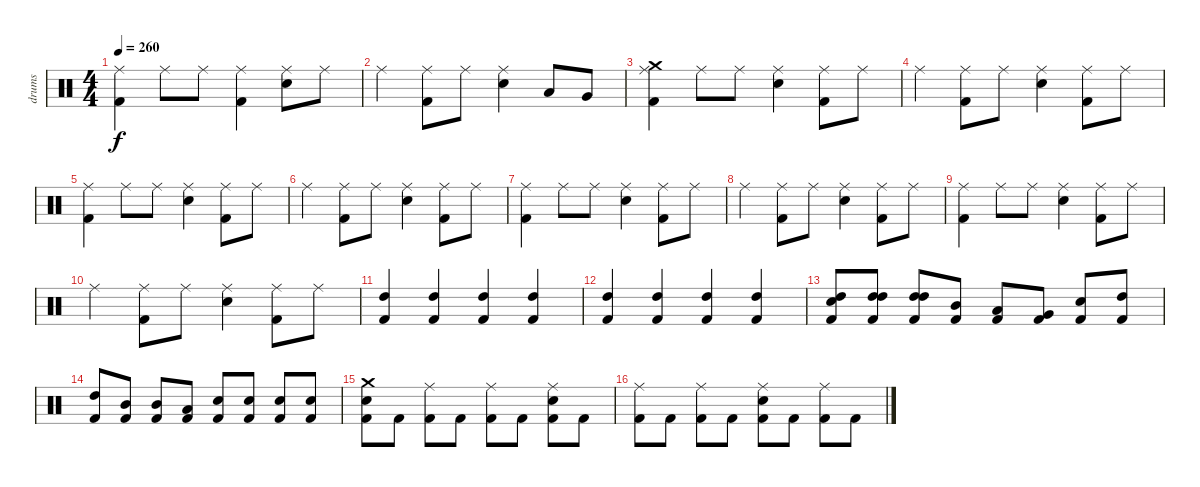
\track ("drums" "drums") {instrument percussion}
\staff {score}
\articulation defaults
\ts (4 4)
\tempo 260
\clef neutral
\ks c
("Ride (middle)" "Kick (hit) 2").4{dy f} "Ride (middle)".8 "Ride (middle)".8 ("Ride (middle)" "Kick (hit) 2").4 ("Ride (middle)" "Electric Snare (hit)").8 "Ride (middle)".8 |
"Ride (middle)".4 ("Ride (middle)" "Kick (hit) 2").8 "Ride (middle)".8 ("Ride (middle)" "Electric Snare (hit)").4 "Low Tom (hit)".8 "Very Low Tom (hit)".8 |
("Ride (middle)" "Crash medium (hit)" "Kick (hit) 2").4 "Ride (middle)".8 "Ride (middle)".8 ("Ride (middle)" "Electric Snare (hit)").4 ("Ride (middle)" "Kick (hit) 2").8 "Ride (middle)".8 |
"Ride (middle)".4 ("Ride (middle)" "Kick (hit) 2").8 "Ride (middle)".8 ("Ride (middle)" "Electric Snare (hit)").4 ("Ride (middle)" "Kick (hit) 2").8 "Ride (middle)".8 |
("Ride (middle)" "Kick (hit) 2").4 "Ride (middle)".8 "Ride (middle)".8 ("Ride (middle)" "Electric Snare (hit)").4 ("Ride (middle)" "Kick (hit) 2").8 "Ride (middle)".8 |
"Ride (middle)".4 ("Ride (middle)" "Kick (hit) 2").8 "Ride (middle)".8 ("Ride (middle)" "Electric Snare (hit)").4 ("Ride (middle)" "Kick (hit) 2").8 "Ride (middle)".8 |
("Ride (middle)" "Kick (hit) 2").4 "Ride (middle)".8 "Ride (middle)".8 ("Ride (middle)" "Electric Snare (hit)").4 ("Ride (middle)" "Kick (hit) 2").8 "Ride (middle)".8 |
"Ride (middle)".4 ("Ride (middle)" "Kick (hit) 2").8 "Ride (middle)".8 ("Ride (middle)" "Electric Snare (hit)").4 ("Ride (middle)" "Kick (hit) 2").8 "Ride (middle)".8 |
("Ride (middle)" "Kick (hit) 2").4 "Ride (middle)".8 "Ride (middle)".8 ("Ride (middle)" "Electric Snare (hit)").4 ("Ride (middle)" "Kick (hit) 2").8 "Ride (middle)".8 |
"Ride (middle)".4 ("Ride (middle)" "Kick (hit) 2").8 "Ride (middle)".8 ("Ride (middle)" "Electric Snare (hit)").4 ("Ride (middle)" "Kick (hit) 2").8 "Ride (middle)".8 |
("High Tom (hit)" "Kick (hit) 2").4 ("High Tom (hit)" "Kick (hit) 2").4 ("High Tom (hit)" "Kick (hit) 2").4 ("High Tom (hit)" "Kick (hit) 2").4 |
("High Tom (hit)" "Kick (hit) 2").4 ("High Tom (hit)" "Kick (hit) 2").4 ("High Tom (hit)" "Kick (hit) 2").4 ("High Tom (hit)" "Kick (hit) 2").4 |
("Electric Snare (hit)" "High Tom (hit)" "Kick (hit) 2").8 ("High Tom (hit)" "High Tom (hit)" "Kick (hit) 2").8 ("High Tom (hit)" "High Tom (hit)" "Kick (hit) 2").8 ("Mid Tom (hit)" "Kick (hit) 2").8 ("Low Tom (hit)" "Kick (hit) 2").8 ("Very Low Tom (hit)" "Kick (hit) 2").8 ("Electric Snare (hit)" "Kick (hit) 2").8 ("High Tom (hit)" "Kick (hit) 2").8 |
("High Tom (hit)" "Kick (hit) 2").8 ("Mid Tom (hit)" "Kick (hit) 2").8 ("Mid Tom (hit)" "Kick (hit) 2").8 ("Low Tom (hit)" "Kick (hit) 2").8 ("Electric Snare (hit)" "Kick (hit) 2").8 ("Electric Snare (hit)" "Kick (hit) 2").8 ("Electric Snare (hit)" "Kick (hit) 2").8 ("Electric Snare (hit)" "Kick (hit) 2").8 |
("Crash medium (hit)" "Electric Snare (hit)" "Kick (hit) 2").8 "Kick (hit) 2".8 ("Ride (middle)" "Kick (hit) 2").8 "Kick (hit) 2".8 ("Ride (middle)" "Kick (hit) 2").8 "Kick (hit) 2".8 ("Ride (middle)" "Electric Snare (hit)" "Kick (hit) 2").8 "Kick (hit) 2".8 |
("Ride (middle)" "Kick (hit) 2").8 "Kick (hit) 2".8 ("Ride (middle)" "Kick (hit) 2").8 "Kick (hit) 2".8 ("Ride (middle)" "Electric Snare (hit)" "Kick (hit) 2").8 "Kick (hit) 2".8 ("Ride (middle)" "Kick (hit) 2").8 "Kick (hit) 2".8
